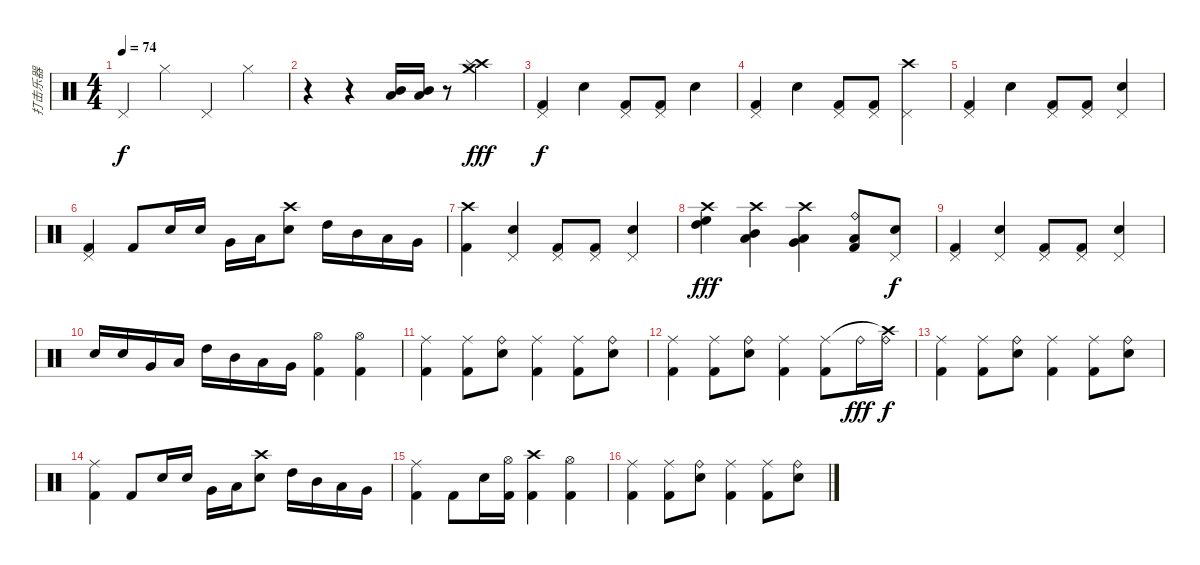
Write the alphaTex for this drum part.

\track ("打击乐器" "打击乐器") {instrument percussion}
\staff {score}
\articulation defaults
\ts (4 4)
\tempo 74
\clef neutral
\ks c "Pedal Hi-Hat (hit)".4{dy f} "Hi-Hat (closed)".4 "Pedal Hi-Hat (hit)".4 "Hi-Hat (closed)".4
|
r.4 r.4 ("Low Tom (hit)" "Mid Tom (hit)").16 ("Low Tom (hit)" "Mid Tom (hit)").16 r.8 ("Crash high (hit)" "Splash (hit)" "Crash medium (hit)").4{dy fff} |
("Kick (hit) 2" "Pedal Hi-Hat (hit)").4{dy f} "Electric Snare (hit)".4 ("Kick (hit) 2" "Pedal Hi-Hat (hit)").8 ("Kick (hit) 2" "Pedal Hi-Hat (hit)").8 "Electric Snare (hit)".4 |
("Kick (hit) 2" "Pedal Hi-Hat (hit)").4 "Electric Snare (hit)".4 ("Kick (hit) 2" "Pedal Hi-Hat (hit)").8 ("Kick (hit) 2" "Pedal Hi-Hat (hit)").8 ("Crash high (hit)" "Pedal Hi-Hat (hit)").4 |
("Kick (hit) 2" "Pedal Hi-Hat (hit)").4 "Electric Snare (hit)".4 ("Kick (hit) 2" "Pedal Hi-Hat (hit)").8 ("Kick (hit) 2" "Pedal Hi-Hat (hit)").8 ("Electric Snare (hit)" "Pedal Hi-Hat (hit)").4 |
("Kick (hit) 2" "Pedal Hi-Hat (hit)").4 "Kick (hit) 2".8 "Electric Snare (hit)".16 "Electric Snare (hit)".16 "Very Low Tom (hit)".16 "Low Floor Tom (hit)".16 ("Electric Snare (hit)" "Crash high (hit)").8 "High Tom (hit)".16 "Mid Tom (hit)".16 "Low Tom (hit)".16 "Very Low Tom (hit)".16 |
("Kick (hit) 2" "Crash high (hit)").4 ("Electric Snare (hit)" "Pedal Hi-Hat (hit)").4 ("Kick (hit) 2" "Pedal Hi-Hat (hit)").8 ("Kick (hit) 2" "Pedal Hi-Hat (hit)").8 ("Electric Snare (hit)" "Pedal Hi-Hat (hit)").4 |
("Crash high (hit)" "High Floor Tom (hit)" "High Tom (hit)").4{dy fff} ("Crash high (hit)" "Low Tom (hit)" "Mid Tom (hit)").4 ("Crash high (hit)" "Low Floor Tom (hit)" "Very Low Tom (hit)").4 ("Ride (bell)" "Kick (hit) 2" "Low Floor Tom (hit)").8 ("Electric Snare (hit)" "Pedal Hi-Hat (hit)").8{dy f} |
("Kick (hit) 2" "Pedal Hi-Hat (hit)").4 ("Electric Snare (hit)" "Pedal Hi-Hat (hit)").4 ("Kick (hit) 2" "Pedal Hi-Hat (hit)").8 ("Kick (hit) 2" "Pedal Hi-Hat (hit)").8 ("Electric Snare (hit)" "Pedal Hi-Hat (hit)").4 |
"Electric Snare (hit)".16 "Electric Snare (hit)".16 "Very Low Tom (hit)".16 "Low Floor Tom (hit)".16 "High Tom (hit)".16 "Mid Tom (hit)".16 "Low Tom (hit)".16 "Very Low Tom (hit)".16 ("Kick (hit) 2" "Hi-Hat (open)").4 ("Kick (hit) 2" "Hi-Hat (open)").4 |
("Kick (hit) 2" "Ride (middle)").4 ("Kick (hit) 2" "Ride (middle)").8 ("Electric Snare (hit)" "Ride (bell)").8 ("Kick (hit) 2" "Ride (middle)").4 ("Kick (hit) 2" "Ride (middle)").8 ("Electric Snare (hit)" "Ride (bell)").8 |
("Kick (hit) 2" "Ride (middle)").4 ("Kick (hit) 2" "Ride (middle)").8 ("Electric Snare (hit)" "Ride (bell)").8 ("Kick (hit) 2" "Ride (middle)").4 ("Kick (hit) 2" "Ride (middle)").8 "Ride (bell)".16{dy fff} ("Ride (bell)" "Crash high (hit)"{t}).16{dy f} |
("Kick (hit) 2" "Ride (middle)").4 ("Kick (hit) 2" "Ride (middle)").8 ("Electric Snare (hit)" "Ride (bell)").8 ("Kick (hit) 2" "Ride (middle)").4 ("Kick (hit) 2" "Ride (middle)").8 ("Electric Snare (hit)" "Ride (bell)").8 |
("Kick (hit) 2" "Ride (middle)").4 "Kick (hit) 2".8 "Electric Snare (hit)".16 "Electric Snare (hit)".16 "Very Low Tom (hit)".16 "Low Floor Tom (hit)".16 ("Electric Snare (hit)" "Crash high (hit)").8 "High Tom (hit)".16 "Mid Tom (hit)".16 "Low Tom (hit)".16 "Very Low Tom (hit)".16 |
("Kick (hit) 2" "Ride (middle)").4 "Kick (hit) 2".8 "Electric Snare (hit)".16 ("Kick (hit) 2" "Hi-Hat (open)").16 ("Crash high (hit)" "Kick (hit) 2").4 ("Hi-Hat (open)" "Kick (hit) 2").4 |
("Kick (hit) 2" "Ride (middle)").4 ("Kick (hit) 2" "Ride (middle)").8 ("Electric Snare (hit)" "Ride (bell)").8 ("Kick (hit) 2" "Ride (middle)").4 ("Kick (hit) 2" "Ride (middle)").8 ("Electric Snare (hit)" "Ride (bell)").8
